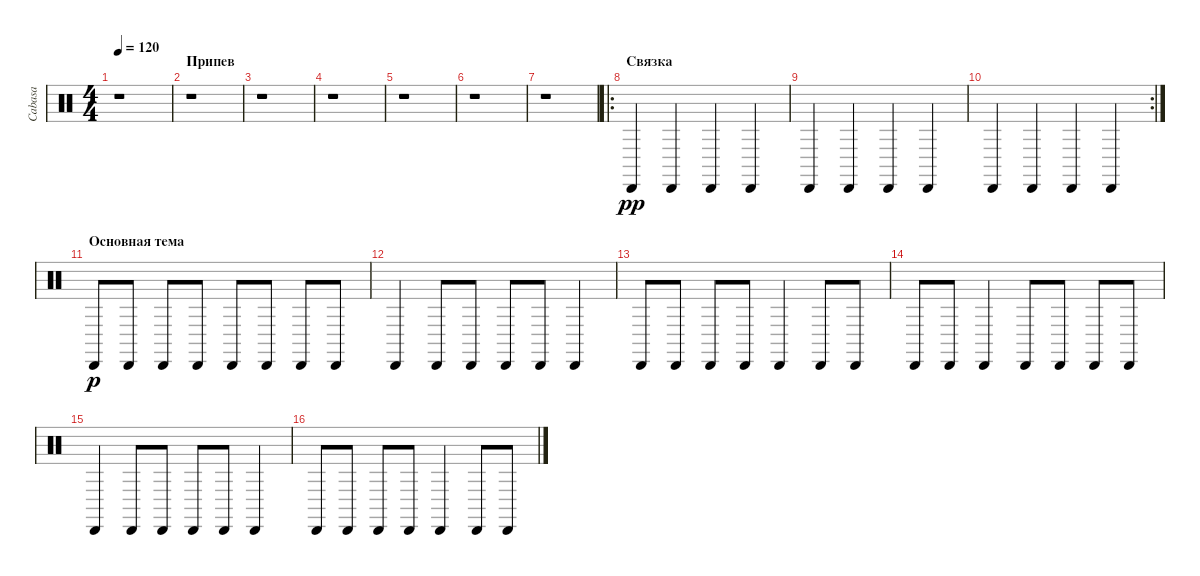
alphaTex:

\track ("Cabasa" "Cabasa") {instrument percussion}
\staff {score}
\articulation defaults
\ts (4 4)
\tempo 120
\clef neutral
\ks c
r.1{dy mp} |
\section ("" "Припев")
r.1 |
r.1 |
r.1 |
r.1 |
r.1 |
r.1 |
\ro
\section ("" "Связка")
"Cabasa (hit)".4{dy pp} "Cabasa (hit)".4 "Cabasa (hit)".4 "Cabasa (hit)".4 |
"Cabasa (hit)".4 "Cabasa (hit)".4 "Cabasa (hit)".4 "Cabasa (hit)".4 |
\rc 2 "Cabasa (hit)".4 "Cabasa (hit)".4 "Cabasa (hit)".4 "Cabasa (hit)".4
|
\section ("" "Основная тема")
"Cabasa (hit)".8{dy p} "Cabasa (hit)".8 "Cabasa (hit)".8 "Cabasa (hit)".8 "Cabasa (hit)".8 "Cabasa (hit)".8 "Cabasa (hit)".8 "Cabasa (hit)".8 |
"Cabasa (hit)".4 "Cabasa (hit)".8 "Cabasa (hit)".8 "Cabasa (hit)".8 "Cabasa (hit)".8 "Cabasa (hit)".4 |
"Cabasa (hit)".8 "Cabasa (hit)".8 "Cabasa (hit)".8 "Cabasa (hit)".8 "Cabasa (hit)".4 "Cabasa (hit)".8 "Cabasa (hit)".8 |
"Cabasa (hit)".8 "Cabasa (hit)".8 "Cabasa (hit)".4 "Cabasa (hit)".8 "Cabasa (hit)".8 "Cabasa (hit)".8 "Cabasa (hit)".8 |
"Cabasa (hit)".4 "Cabasa (hit)".8 "Cabasa (hit)".8 "Cabasa (hit)".8 "Cabasa (hit)".8 "Cabasa (hit)".4 |
"Cabasa (hit)".8 "Cabasa (hit)".8 "Cabasa (hit)".8 "Cabasa (hit)".8 "Cabasa (hit)".4 "Cabasa (hit)".8 "Cabasa (hit)".8
